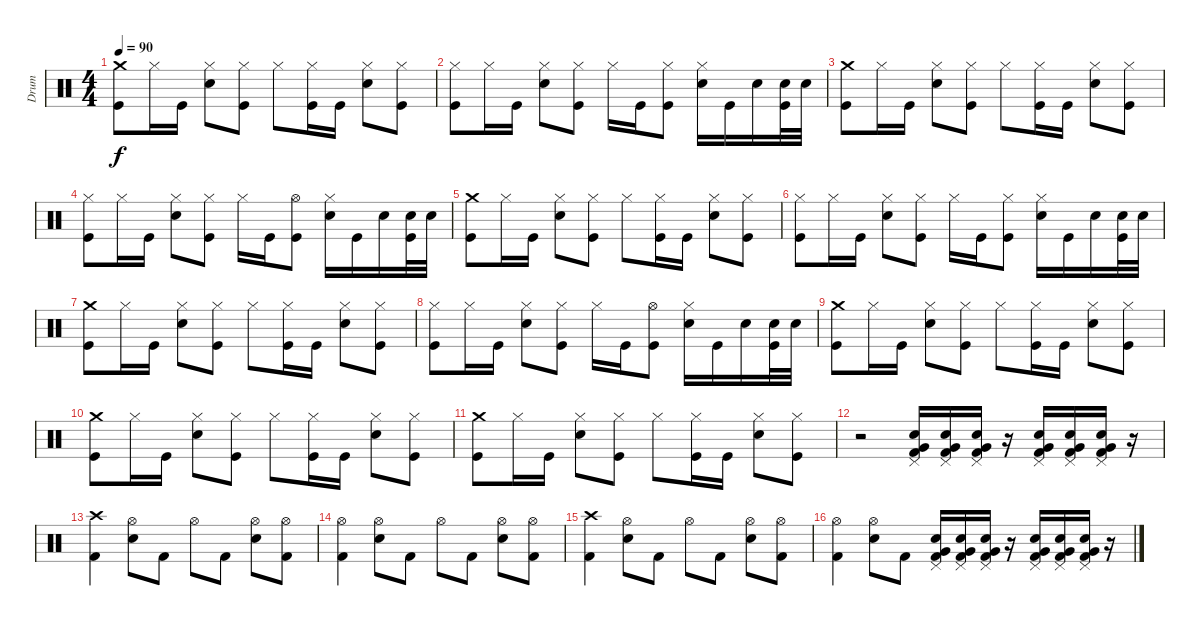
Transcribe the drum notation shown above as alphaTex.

\track ("Drum" "Drum") {instrument percussion}
\staff {score}
\articulation defaults
\ts (4 4)
\tempo 90
\clef neutral
\ks c
("Crash medium (hit)" "Kick (hit)").8{dy f} "Hi-Hat (closed)".16 "Kick (hit)".16 ("Hi-Hat (closed)" "Snare (hit) 2").8 ("Hi-Hat (closed)" "Kick (hit)").8 "Hi-Hat (closed)".8 ("Hi-Hat (closed)" "Kick (hit)").16 "Kick (hit)".16 ("Hi-Hat (closed)" "Snare (hit) 2").8 ("Hi-Hat (closed)" "Kick (hit)").8 |
("Hi-Hat (closed)" "Kick (hit)").8 "Hi-Hat (closed)".16 "Kick (hit)".16 ("Hi-Hat (closed)" "Snare (hit) 2").8 ("Hi-Hat (closed)" "Kick (hit)").8 "Hi-Hat (closed)".16 "Kick (hit)".16 ("Hi-Hat (closed)" "Kick (hit)").8 ("Hi-Hat (closed)" "Snare (hit) 2").16 "Kick (hit)".16 "Snare (hit) 2".16 ("Snare (hit) 2" "Kick (hit)").32 "Snare (hit) 2".32 |
("Crash medium (hit)" "Kick (hit)").8 "Hi-Hat (closed)".16 "Kick (hit)".16 ("Hi-Hat (closed)" "Snare (hit) 2").8 ("Hi-Hat (closed)" "Kick (hit)").8 "Hi-Hat (closed)".8 ("Hi-Hat (closed)" "Kick (hit)").16 "Kick (hit)".16 ("Hi-Hat (closed)" "Snare (hit) 2").8 ("Hi-Hat (closed)" "Kick (hit)").8 |
("Hi-Hat (closed)" "Kick (hit)").8 "Hi-Hat (closed)".16 "Kick (hit)".16 ("Hi-Hat (closed)" "Snare (hit) 2").8 ("Hi-Hat (closed)" "Kick (hit)").8 "Hi-Hat (closed)".16 "Kick (hit)".16 ("Hi-Hat (open)" "Kick (hit)").8 ("Hi-Hat (closed)" "Snare (hit) 2").16 "Kick (hit)".16 "Snare (hit) 2".16 ("Snare (hit) 2" "Kick (hit)").32 "Snare (hit) 2".32 |
("Crash medium (hit)" "Kick (hit)").8 "Hi-Hat (closed)".16 "Kick (hit)".16 ("Hi-Hat (closed)" "Snare (hit) 2").8 ("Hi-Hat (closed)" "Kick (hit)").8 "Hi-Hat (closed)".8 ("Hi-Hat (closed)" "Kick (hit)").16 "Kick (hit)".16 ("Hi-Hat (closed)" "Snare (hit) 2").8 ("Hi-Hat (closed)" "Kick (hit)").8 |
("Hi-Hat (closed)" "Kick (hit)").8 "Hi-Hat (closed)".16 "Kick (hit)".16 ("Hi-Hat (closed)" "Snare (hit) 2").8 ("Hi-Hat (closed)" "Kick (hit)").8 "Hi-Hat (closed)".16 "Kick (hit)".16 ("Hi-Hat (closed)" "Kick (hit)").8 ("Hi-Hat (closed)" "Snare (hit) 2").16 "Kick (hit)".16 "Snare (hit) 2".16 ("Snare (hit) 2" "Kick (hit)").32 "Snare (hit) 2".32 |
("Crash medium (hit)" "Kick (hit)").8 "Hi-Hat (closed)".16 "Kick (hit)".16 ("Hi-Hat (closed)" "Snare (hit) 2").8 ("Hi-Hat (closed)" "Kick (hit)").8 "Hi-Hat (closed)".8 ("Hi-Hat (closed)" "Kick (hit)").16 "Kick (hit)".16 ("Hi-Hat (closed)" "Snare (hit) 2").8 ("Hi-Hat (closed)" "Kick (hit)").8 |
("Hi-Hat (closed)" "Kick (hit)").8 "Hi-Hat (closed)".16 "Kick (hit)".16 ("Hi-Hat (closed)" "Snare (hit) 2").8 ("Hi-Hat (closed)" "Kick (hit)").8 "Hi-Hat (closed)".16 "Kick (hit)".16 ("Hi-Hat (open)" "Kick (hit)").8 ("Hi-Hat (closed)" "Snare (hit) 2").16 "Kick (hit)".16 "Snare (hit) 2".16 ("Snare (hit) 2" "Kick (hit)").32 "Snare (hit) 2".32 |
("Crash medium (hit)" "Kick (hit)").8 "Hi-Hat (closed)".16 "Kick (hit)".16 ("Hi-Hat (closed)" "Snare (hit) 2").8 ("Hi-Hat (closed)" "Kick (hit)").8 "Hi-Hat (closed)".8 ("Hi-Hat (closed)" "Kick (hit)").16 "Kick (hit)".16 ("Hi-Hat (closed)" "Snare (hit) 2").8 ("Hi-Hat (closed)" "Kick (hit)").8 |
("Crash medium (hit)" "Kick (hit)").8 "Hi-Hat (closed)".16 "Kick (hit)".16 ("Hi-Hat (closed)" "Snare (hit) 2").8 ("Hi-Hat (closed)" "Kick (hit)").8 "Hi-Hat (closed)".8 ("Hi-Hat (closed)" "Kick (hit)").16 "Kick (hit)".16 ("Hi-Hat (closed)" "Snare (hit) 2").8 ("Hi-Hat (closed)" "Kick (hit)").8 |
("Crash medium (hit)" "Kick (hit)").8 "Hi-Hat (closed)".16 "Kick (hit)".16 ("Hi-Hat (closed)" "Snare (hit) 2").8 ("Hi-Hat (closed)" "Kick (hit)").8 "Hi-Hat (closed)".8 ("Hi-Hat (closed)" "Kick (hit)").16 "Kick (hit)".16 ("Hi-Hat (closed)" "Snare (hit) 2").8 ("Hi-Hat (closed)" "Kick (hit)").8 |
r.2 ("Pedal Hi-Hat (hit)" "Kick (hit) 2" "Electric Snare (hit)" "Very Low Tom (hit)").16 ("Pedal Hi-Hat (hit)" "Kick (hit) 2" "Electric Snare (hit)" "Very Low Tom (hit)").16 ("Pedal Hi-Hat (hit)" "Kick (hit) 2" "Electric Snare (hit)" "Very Low Tom (hit)").16 r.16 ("Pedal Hi-Hat (hit)" "Kick (hit) 2" "Electric Snare (hit)" "Very Low Tom (hit)").16 ("Pedal Hi-Hat (hit)" "Kick (hit) 2" "Electric Snare (hit)" "Very Low Tom (hit)").16 ("Pedal Hi-Hat (hit)" "Kick (hit) 2" "Electric Snare (hit)" "Very Low Tom (hit)").16 r.16 |
("Crash high (hit)" "Kick (hit) 2").4 ("Hi-Hat (open)" "Electric Snare (hit)").8 "Kick (hit) 2".8 "Hi-Hat (open)".8 "Kick (hit) 2".8 ("Hi-Hat (open)" "Electric Snare (hit)").8 ("Hi-Hat (open)" "Kick (hit) 2").8 |
("Hi-Hat (open)" "Kick (hit) 2").4 ("Hi-Hat (open)" "Electric Snare (hit)").8 "Kick (hit) 2".8 "Hi-Hat (open)".8 "Kick (hit) 2".8 ("Hi-Hat (open)" "Electric Snare (hit)").8 ("Hi-Hat (open)" "Kick (hit) 2").8 |
("Crash high (hit)" "Kick (hit) 2").4 ("Hi-Hat (open)" "Electric Snare (hit)").8 "Kick (hit) 2".8 "Hi-Hat (open)".8 "Kick (hit) 2".8 ("Hi-Hat (open)" "Electric Snare (hit)").8 ("Hi-Hat (open)" "Kick (hit) 2").8 |
("Hi-Hat (open)" "Kick (hit) 2").4 ("Hi-Hat (open)" "Electric Snare (hit)").8 "Kick (hit) 2".8 ("Pedal Hi-Hat (hit)" "Kick (hit) 2" "Electric Snare (hit)" "Very Low Tom (hit)").16 ("Pedal Hi-Hat (hit)" "Kick (hit) 2" "Electric Snare (hit)" "Very Low Tom (hit)").16 ("Pedal Hi-Hat (hit)" "Kick (hit) 2" "Electric Snare (hit)" "Very Low Tom (hit)").16 r.16 ("Pedal Hi-Hat (hit)" "Kick (hit) 2" "Electric Snare (hit)" "Very Low Tom (hit)").16 ("Pedal Hi-Hat (hit)" "Kick (hit) 2" "Electric Snare (hit)" "Very Low Tom (hit)").16 ("Pedal Hi-Hat (hit)" "Kick (hit) 2" "Electric Snare (hit)" "Very Low Tom (hit)").16 r.16
